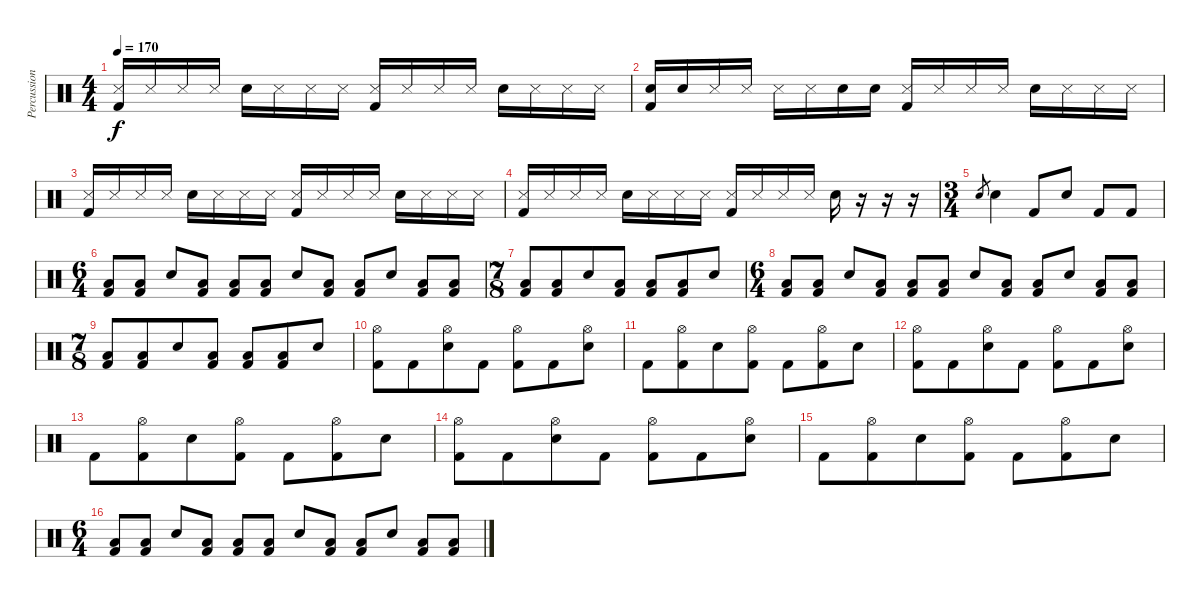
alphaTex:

\track ("Percussion" "Percussion") {instrument percussion}
\staff {score}
\articulation defaults
\ts (4 4)
\tempo 170
\clef neutral
\ks c
("Snare (side stick) 3" "Kick (hit) 2").16{dy f} "Snare (side stick) 3".16 "Snare (side stick) 3".16 "Snare (side stick) 3".16 "Electric Snare (hit)".16 "Snare (side stick) 3".16 "Snare (side stick) 3".16 "Snare (side stick) 3".16 ("Snare (side stick) 3" "Kick (hit) 2").16 "Snare (side stick) 3".16 "Snare (side stick) 3".16 "Snare (side stick) 3".16 "Electric Snare (hit)".16 "Snare (side stick) 3".16 "Snare (side stick) 3".16 "Snare (side stick) 3".16 |
("Electric Snare (hit)" "Kick (hit) 2").16 "Electric Snare (hit)".16 "Snare (side stick) 3".16 "Snare (side stick) 3".16 "Snare (side stick) 3".16 "Snare (side stick) 3".16 "Electric Snare (hit)".16 "Electric Snare (hit)".16 ("Snare (side stick) 3" "Kick (hit) 2").16 "Snare (side stick) 3".16 "Snare (side stick) 3".16 "Snare (side stick) 3".16 "Electric Snare (hit)".16 "Snare (side stick) 3".16 "Snare (side stick) 3".16 "Snare (side stick) 3".16 |
("Snare (side stick) 3" "Kick (hit) 2").16 "Snare (side stick) 3".16 "Snare (side stick) 3".16 "Snare (side stick) 3".16 "Electric Snare (hit)".16 "Snare (side stick) 3".16 "Snare (side stick) 3".16 "Snare (side stick) 3".16 ("Snare (side stick) 3" "Kick (hit) 2").16 "Snare (side stick) 3".16 "Snare (side stick) 3".16 "Snare (side stick) 3".16 "Electric Snare (hit)".16 "Snare (side stick) 3".16 "Snare (side stick) 3".16 "Snare (side stick) 3".16 |
("Snare (side stick) 3" "Kick (hit) 2").16 "Snare (side stick) 3".16 "Snare (side stick) 3".16 "Snare (side stick) 3".16 "Electric Snare (hit)".16 "Snare (side stick) 3".16 "Snare (side stick) 3".16 "Snare (side stick) 3".16 ("Snare (side stick) 3" "Kick (hit) 2").16 "Snare (side stick) 3".16 "Snare (side stick) 3".16 "Snare (side stick) 3".16 "Electric Snare (hit)".16 r.16 r.16 r.16 |
\ts (3 4)
"Electric Snare (hit)".8{gr} "Electric Snare (hit)".4 "Kick (hit) 2".8 "Electric Snare (hit)".8 "Kick (hit) 2".8 "Kick (hit) 2".8 |
\ts (6 4)
("Low Floor Tom (hit)" "Kick (hit) 2").8 ("Low Floor Tom (hit)" "Kick (hit) 2").8 "Electric Snare (hit)".8 ("Low Floor Tom (hit)" "Kick (hit) 2").8 ("Low Floor Tom (hit)" "Kick (hit) 2").8 ("Low Floor Tom (hit)" "Kick (hit) 2").8 "Electric Snare (hit)".8 ("Low Floor Tom (hit)" "Kick (hit) 2").8 ("Low Floor Tom (hit)" "Kick (hit) 2").8 "Electric Snare (hit)".8 ("Low Floor Tom (hit)" "Kick (hit) 2").8 ("Low Floor Tom (hit)" "Kick (hit) 2").8 |
\ts (7 8)
("Low Floor Tom (hit)" "Kick (hit) 2").8 ("Low Floor Tom (hit)" "Kick (hit) 2").8 "Electric Snare (hit)".8 ("Low Floor Tom (hit)" "Kick (hit) 2").8 ("Low Floor Tom (hit)" "Kick (hit) 2").8 ("Low Floor Tom (hit)" "Kick (hit) 2").8 "Electric Snare (hit)".8 |
\ts (6 4)
("Low Floor Tom (hit)" "Kick (hit) 2").8 ("Low Floor Tom (hit)" "Kick (hit) 2").8 "Electric Snare (hit)".8 ("Low Floor Tom (hit)" "Kick (hit) 2").8 ("Low Floor Tom (hit)" "Kick (hit) 2").8 ("Low Floor Tom (hit)" "Kick (hit) 2").8 "Electric Snare (hit)".8 ("Low Floor Tom (hit)" "Kick (hit) 2").8 ("Low Floor Tom (hit)" "Kick (hit) 2").8 "Electric Snare (hit)".8 ("Low Floor Tom (hit)" "Kick (hit) 2").8 ("Low Floor Tom (hit)" "Kick (hit) 2").8 |
\ts (7 8)
("Low Floor Tom (hit)" "Kick (hit) 2").8 ("Low Floor Tom (hit)" "Kick (hit) 2").8 "Electric Snare (hit)".8 ("Low Floor Tom (hit)" "Kick (hit) 2").8 ("Low Floor Tom (hit)" "Kick (hit) 2").8 ("Low Floor Tom (hit)" "Kick (hit) 2").8 "Electric Snare (hit)".8 |
("Hi-Hat (open)" "Kick (hit) 2").8 "Kick (hit) 2".8 ("Hi-Hat (open)" "Electric Snare (hit)").8 "Kick (hit) 2".8 ("Hi-Hat (open)" "Kick (hit) 2").8 "Kick (hit) 2".8 ("Hi-Hat (open)" "Electric Snare (hit)").8 |
"Kick (hit) 2".8 ("Hi-Hat (open)" "Kick (hit) 2").8 "Electric Snare (hit)".8 ("Hi-Hat (open)" "Kick (hit) 2").8 "Kick (hit) 2".8 ("Hi-Hat (open)" "Kick (hit) 2").8 "Electric Snare (hit)".8 |
("Hi-Hat (open)" "Kick (hit) 2").8 "Kick (hit) 2".8 ("Hi-Hat (open)" "Electric Snare (hit)").8 "Kick (hit) 2".8 ("Hi-Hat (open)" "Kick (hit) 2").8 "Kick (hit) 2".8 ("Hi-Hat (open)" "Electric Snare (hit)").8 |
"Kick (hit) 2".8 ("Hi-Hat (open)" "Kick (hit) 2").8 "Electric Snare (hit)".8 ("Hi-Hat (open)" "Kick (hit) 2").8 "Kick (hit) 2".8 ("Hi-Hat (open)" "Kick (hit) 2").8 "Electric Snare (hit)".8 |
("Hi-Hat (open)" "Kick (hit) 2").8 "Kick (hit) 2".8 ("Hi-Hat (open)" "Electric Snare (hit)").8 "Kick (hit) 2".8 ("Hi-Hat (open)" "Kick (hit) 2").8 "Kick (hit) 2".8 ("Hi-Hat (open)" "Electric Snare (hit)").8 |
"Kick (hit) 2".8 ("Hi-Hat (open)" "Kick (hit) 2").8 "Electric Snare (hit)".8 ("Hi-Hat (open)" "Kick (hit) 2").8 "Kick (hit) 2".8 ("Hi-Hat (open)" "Kick (hit) 2").8 "Electric Snare (hit)".8 |
\ts (6 4)
("Low Floor Tom (hit)" "Kick (hit) 2").8 ("Low Floor Tom (hit)" "Kick (hit) 2").8 "Electric Snare (hit)".8 ("Low Floor Tom (hit)" "Kick (hit) 2").8 ("Low Floor Tom (hit)" "Kick (hit) 2").8 ("Low Floor Tom (hit)" "Kick (hit) 2").8 "Electric Snare (hit)".8 ("Low Floor Tom (hit)" "Kick (hit) 2").8 ("Low Floor Tom (hit)" "Kick (hit) 2").8 "Electric Snare (hit)".8 ("Low Floor Tom (hit)" "Kick (hit) 2").8 ("Low Floor Tom (hit)" "Kick (hit) 2").8
